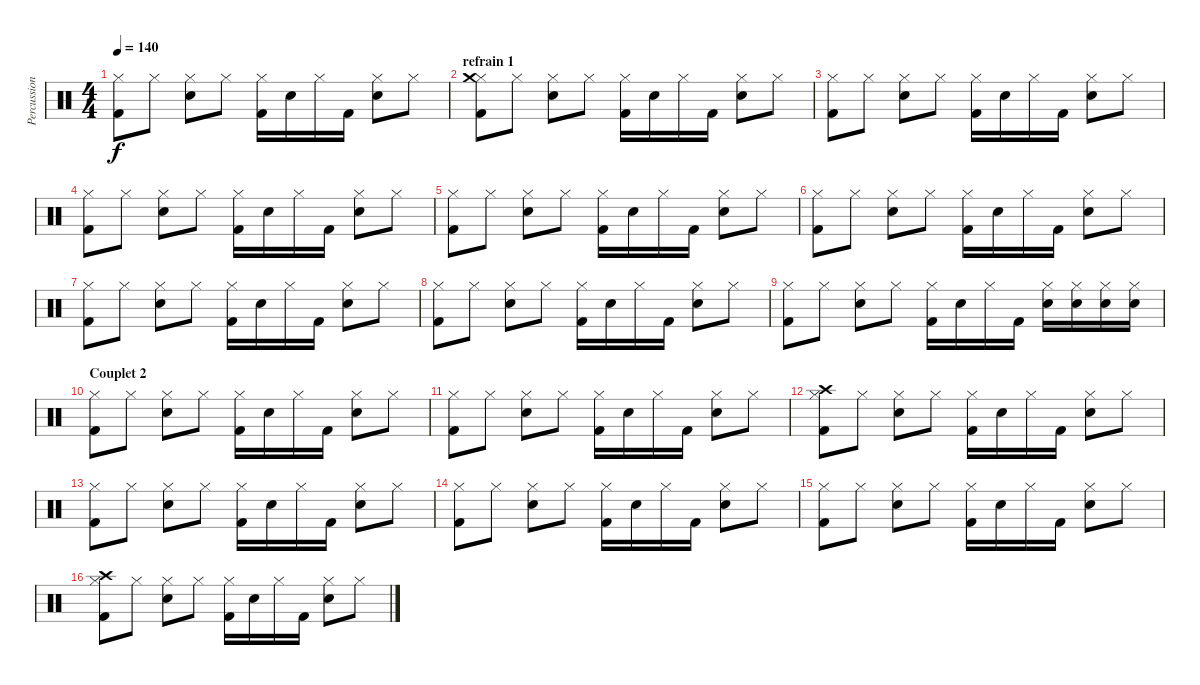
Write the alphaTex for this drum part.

\track ("Percussions" "Percussion") {instrument percussion}
\staff {score}
\articulation defaults
\ts (4 4)
\tempo 140
\clef neutral
\ks c
("Hi-Hat (closed)" "Kick (hit) 2").8{dy f} "Hi-Hat (closed)".8 ("Hi-Hat (closed)" "Electric Snare (hit)").8 "Hi-Hat (closed)".8 ("Hi-Hat (closed)" "Kick (hit) 2").16 "Electric Snare (hit)".16 "Hi-Hat (closed)".16 "Kick (hit) 2".16 ("Hi-Hat (closed)" "Electric Snare (hit)").8 "Hi-Hat (closed)".8 |
\section ("" "refrain 1")
("Hi-Hat (closed)" "Crash medium (hit)" "Kick (hit) 2").8 "Hi-Hat (closed)".8 ("Hi-Hat (closed)" "Electric Snare (hit)").8 "Hi-Hat (closed)".8 ("Hi-Hat (closed)" "Kick (hit) 2").16 "Electric Snare (hit)".16 "Hi-Hat (closed)".16 "Kick (hit) 2".16 ("Hi-Hat (closed)" "Electric Snare (hit)").8 "Hi-Hat (closed)".8 |
("Hi-Hat (closed)" "Kick (hit) 2").8 "Hi-Hat (closed)".8 ("Hi-Hat (closed)" "Electric Snare (hit)").8 "Hi-Hat (closed)".8 ("Hi-Hat (closed)" "Kick (hit) 2").16 "Electric Snare (hit)".16 "Hi-Hat (closed)".16 "Kick (hit) 2".16 ("Hi-Hat (closed)" "Electric Snare (hit)").8 "Hi-Hat (closed)".8 |
("Hi-Hat (closed)" "Kick (hit) 2").8 "Hi-Hat (closed)".8 ("Hi-Hat (closed)" "Electric Snare (hit)").8 "Hi-Hat (closed)".8 ("Hi-Hat (closed)" "Kick (hit) 2").16 "Electric Snare (hit)".16 "Hi-Hat (closed)".16 "Kick (hit) 2".16 ("Hi-Hat (closed)" "Electric Snare (hit)").8 "Hi-Hat (closed)".8 |
("Hi-Hat (closed)" "Kick (hit) 2").8 "Hi-Hat (closed)".8 ("Hi-Hat (closed)" "Electric Snare (hit)").8 "Hi-Hat (closed)".8 ("Hi-Hat (closed)" "Kick (hit) 2").16 "Electric Snare (hit)".16 "Hi-Hat (closed)".16 "Kick (hit) 2".16 ("Hi-Hat (closed)" "Electric Snare (hit)").8 "Hi-Hat (closed)".8 |
("Hi-Hat (closed)" "Kick (hit) 2").8 "Hi-Hat (closed)".8 ("Hi-Hat (closed)" "Electric Snare (hit)").8 "Hi-Hat (closed)".8 ("Hi-Hat (closed)" "Kick (hit) 2").16 "Electric Snare (hit)".16 "Hi-Hat (closed)".16 "Kick (hit) 2".16 ("Hi-Hat (closed)" "Electric Snare (hit)").8 "Hi-Hat (closed)".8 |
("Hi-Hat (closed)" "Kick (hit) 2").8 "Hi-Hat (closed)".8 ("Hi-Hat (closed)" "Electric Snare (hit)").8 "Hi-Hat (closed)".8 ("Hi-Hat (closed)" "Kick (hit) 2").16 "Electric Snare (hit)".16 "Hi-Hat (closed)".16 "Kick (hit) 2".16 ("Hi-Hat (closed)" "Electric Snare (hit)").8 "Hi-Hat (closed)".8 |
("Hi-Hat (closed)" "Kick (hit) 2").8 "Hi-Hat (closed)".8 ("Hi-Hat (closed)" "Electric Snare (hit)").8 "Hi-Hat (closed)".8 ("Hi-Hat (closed)" "Kick (hit) 2").16 "Electric Snare (hit)".16 "Hi-Hat (closed)".16 "Kick (hit) 2".16 ("Hi-Hat (closed)" "Electric Snare (hit)").8 "Hi-Hat (closed)".8 |
("Hi-Hat (closed)" "Kick (hit) 2").8 "Hi-Hat (closed)".8 ("Hi-Hat (closed)" "Electric Snare (hit)").8 "Hi-Hat (closed)".8 ("Hi-Hat (closed)" "Kick (hit) 2").16 "Electric Snare (hit)".16 "Hi-Hat (closed)".16 "Kick (hit) 2".16 ("Hi-Hat (closed)" "Electric Snare (hit)").16 ("Hi-Hat (closed)" "Electric Snare (hit)").16 ("Hi-Hat (closed)" "Electric Snare (hit)").16 ("Hi-Hat (closed)" "Electric Snare (hit)").16 |
\section ("" "Couplet 2")
("Hi-Hat (closed)" "Kick (hit) 2").8 "Hi-Hat (closed)".8 ("Hi-Hat (closed)" "Electric Snare (hit)").8 "Hi-Hat (closed)".8 ("Hi-Hat (closed)" "Kick (hit) 2").16 "Electric Snare (hit)".16 "Hi-Hat (closed)".16 "Kick (hit) 2".16 ("Hi-Hat (closed)" "Electric Snare (hit)").8 "Hi-Hat (closed)".8 |
("Hi-Hat (closed)" "Kick (hit) 2").8 "Hi-Hat (closed)".8 ("Hi-Hat (closed)" "Electric Snare (hit)").8 "Hi-Hat (closed)".8 ("Hi-Hat (closed)" "Kick (hit) 2").16 "Electric Snare (hit)".16 "Hi-Hat (closed)".16 "Kick (hit) 2".16 ("Hi-Hat (closed)" "Electric Snare (hit)").8 "Hi-Hat (closed)".8 |
("Hi-Hat (closed)" "Crash high (hit)" "Kick (hit) 2").8 "Hi-Hat (closed)".8 ("Hi-Hat (closed)" "Electric Snare (hit)").8 "Hi-Hat (closed)".8 ("Hi-Hat (closed)" "Kick (hit) 2").16 "Electric Snare (hit)".16 "Hi-Hat (closed)".16 "Kick (hit) 2".16 ("Hi-Hat (closed)" "Electric Snare (hit)").8 "Hi-Hat (closed)".8 |
("Hi-Hat (closed)" "Kick (hit) 2").8 "Hi-Hat (closed)".8 ("Hi-Hat (closed)" "Electric Snare (hit)").8 "Hi-Hat (closed)".8 ("Hi-Hat (closed)" "Kick (hit) 2").16 "Electric Snare (hit)".16 "Hi-Hat (closed)".16 "Kick (hit) 2".16 ("Hi-Hat (closed)" "Electric Snare (hit)").8 "Hi-Hat (closed)".8 |
("Hi-Hat (closed)" "Kick (hit) 2").8 "Hi-Hat (closed)".8 ("Hi-Hat (closed)" "Electric Snare (hit)").8 "Hi-Hat (closed)".8 ("Hi-Hat (closed)" "Kick (hit) 2").16 "Electric Snare (hit)".16 "Hi-Hat (closed)".16 "Kick (hit) 2".16 ("Hi-Hat (closed)" "Electric Snare (hit)").8 "Hi-Hat (closed)".8 |
("Hi-Hat (closed)" "Kick (hit) 2").8 "Hi-Hat (closed)".8 ("Hi-Hat (closed)" "Electric Snare (hit)").8 "Hi-Hat (closed)".8 ("Hi-Hat (closed)" "Kick (hit) 2").16 "Electric Snare (hit)".16 "Hi-Hat (closed)".16 "Kick (hit) 2".16 ("Hi-Hat (closed)" "Electric Snare (hit)").8 "Hi-Hat (closed)".8 |
("Hi-Hat (closed)" "Crash high (hit)" "Kick (hit) 2").8 "Hi-Hat (closed)".8 ("Hi-Hat (closed)" "Electric Snare (hit)").8 "Hi-Hat (closed)".8 ("Hi-Hat (closed)" "Kick (hit) 2").16 "Electric Snare (hit)".16 "Hi-Hat (closed)".16 "Kick (hit) 2".16 ("Hi-Hat (closed)" "Electric Snare (hit)").8 "Hi-Hat (closed)".8
